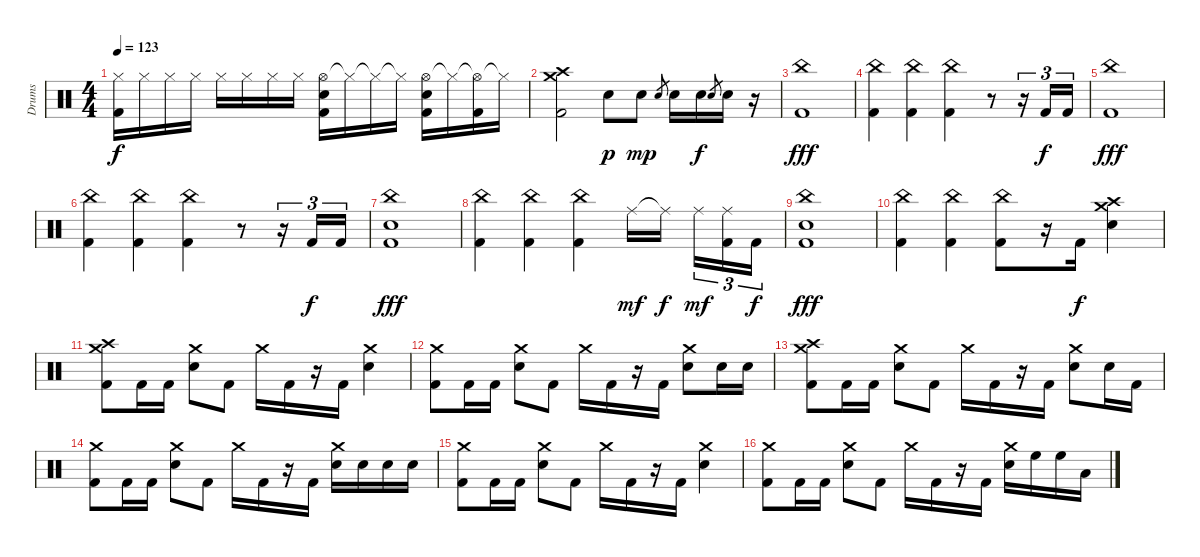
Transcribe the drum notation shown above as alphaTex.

\track ("Drums" "Drums") {instrument percussion}
\staff {score}
\articulation defaults
\ts (4 4)
\tempo 123
\clef neutral
\ks c
("Hi-Hat (closed)" "Kick (hit) 2").16{dy f} "Hi-Hat (closed)".16 "Hi-Hat (closed)".16 "Hi-Hat (closed)".16 "Hi-Hat (closed)".16 "Hi-Hat (closed)".16 "Hi-Hat (closed)".16 "Hi-Hat (closed)".16 ("Hi-Hat (open)" "Snare (hit) 2" "Kick (hit) 2").16 "Hi-Hat (closed)"{t}.16 "Hi-Hat (closed)"{t}.16 "Hi-Hat (closed)"{t}.16 ("Hi-Hat (open)" "Snare (hit) 2" "Kick (hit) 2").16 "Hi-Hat (closed)"{t}.16 ("Hi-Hat (open)"{t} "Kick (hit) 2").16 "Hi-Hat (closed)"{t}.16 |
("Crash high (hit)" "Crash medium (hit)" "Kick (hit) 2").2 "Snare (hit) 2".8{dy p} "Snare (hit) 2".8{dy mp} "Snare (hit) 2".8{gr} "Snare (hit) 2".16 "Snare (hit) 2".16{dy f} "Snare (hit) 2".8{gr} "Snare (hit) 2".16 r.16 |
("China (hit)" "Kick (hit) 2").1{dy fff} |
("China (hit)" "Kick (hit) 2").4 ("China (hit)" "Kick (hit) 2").4 ("China (hit)" "Kick (hit) 2").4 r.8 r.16{tu (3 2)} "Kick (hit) 2".16{tu (3 2) dy f} "Kick (hit) 2".16{tu (3 2)} |
("China (hit)" "Kick (hit) 2").1{dy fff} |
("China (hit)" "Kick (hit) 2").4 ("China (hit)" "Kick (hit) 2").4 ("China (hit)" "Kick (hit) 2").4 r.8 r.16{tu (3 2)} "Kick (hit) 2".16{tu (3 2) dy f} "Kick (hit) 2".16{tu (3 2)} |
("China (hit)" "Snare (hit) 2" "Kick (hit) 2").1{dy fff} |
("China (hit)" "Kick (hit) 2").4 ("China (hit)" "Kick (hit) 2").4 ("China (hit)" "Kick (hit) 2").4 "Ride (middle)".16{dy mf} "Ride (middle)"{t}.16{dy f} "Ride (middle)".16{tu (3 2) dy mf} ("Ride (middle)" "Kick (hit) 2").16{tu (3 2)} "Kick (hit) 2".16{tu (3 2) dy f} |
("China (hit)" "Snare (hit) 2" "Kick (hit) 2").1{dy fff} |
("China (hit)" "Kick (hit) 2").4 ("China (hit)" "Kick (hit) 2").4 ("China (hit)" "Kick (hit) 2").8 r.16 "Kick (hit) 2".16{dy f} ("Crash medium (hit)" "Crash high (hit)" "Snare (hit) 2").4 |
("Crash medium (hit)" "Crash high (hit)" "Kick (hit) 2").8 "Kick (hit) 2".16 "Kick (hit) 2".16 ("Crash medium (hit)" "Electric Snare (hit)").8 "Kick (hit) 2".8 "Crash medium (hit)".16 "Kick (hit) 2".16 r.16 "Kick (hit) 2".16 ("Crash medium (hit)" "Electric Snare (hit)").4 |
("Crash medium (hit)" "Kick (hit) 2").8 "Kick (hit) 2".16 "Kick (hit) 2".16 ("Crash medium (hit)" "Electric Snare (hit)").8 "Kick (hit) 2".8 "Crash medium (hit)".16 "Kick (hit) 2".16 r.16 "Kick (hit) 2".16 ("Crash medium (hit)" "Electric Snare (hit)").8 "Electric Snare (hit)".16 "Electric Snare (hit)".16 |
("Crash medium (hit)" "Crash high (hit)" "Kick (hit) 2").8 "Kick (hit) 2".16 "Kick (hit) 2".16 ("Crash medium (hit)" "Electric Snare (hit)").8 "Kick (hit) 2".8 "Crash medium (hit)".16 "Kick (hit) 2".16 r.16 "Kick (hit) 2".16 ("Crash medium (hit)" "Electric Snare (hit)").8 "Electric Snare (hit)".16 "Kick (hit) 2".16 |
("Crash medium (hit)" "Kick (hit) 2").8 "Kick (hit) 2".16 "Kick (hit) 2".16 ("Crash medium (hit)" "Electric Snare (hit)").8 "Kick (hit) 2".8 "Crash medium (hit)".16 "Kick (hit) 2".16 r.16 "Kick (hit) 2".16 ("Crash medium (hit)" "Electric Snare (hit)").16 "Electric Snare (hit)".16 "Electric Snare (hit)".16 "Electric Snare (hit)".16 |
("Crash medium (hit)" "Kick (hit) 2").8 "Kick (hit) 2".16 "Kick (hit) 2".16 ("Crash medium (hit)" "Electric Snare (hit)").8 "Kick (hit) 2".8 "Crash medium (hit)".16 "Kick (hit) 2".16 r.16 "Kick (hit) 2".16 ("Crash medium (hit)" "Electric Snare (hit)").4 |
("Crash medium (hit)" "Kick (hit) 2").8 "Kick (hit) 2".16 "Kick (hit) 2".16 ("Crash medium (hit)" "Electric Snare (hit)").8 "Kick (hit) 2".8 "Crash medium (hit)".16 "Kick (hit) 2".16 r.16 "Kick (hit) 2".16 ("Crash medium (hit)" "Electric Snare (hit)").16 "High Floor Tom (hit)".16 "High Floor Tom (hit)".16 "Low Tom (hit)".16
